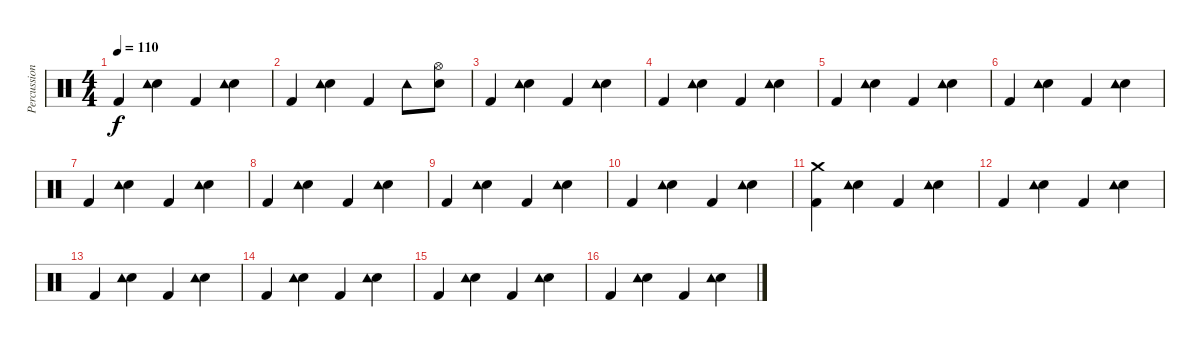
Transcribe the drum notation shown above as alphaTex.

\track ("Percussion" "Percussion") {instrument percussion}
\staff {score}
\articulation defaults
\ts (4 4)
\tempo 110
\clef neutral
\ks c "Kick (hit) 2".4{dy f}
("Electric Snare (hit)" "Tambourine (hit)").4 "Kick (hit) 2".4 ("Electric Snare (hit)" "Tambourine (hit)").4 |
"Kick (hit) 2".4 ("Electric Snare (hit)" "Tambourine (hit)").4 "Kick (hit) 2".4 "Tambourine (hit)".8 ("Electric Snare (hit)" "Hi-Hat (open)").8 |
"Kick (hit) 2".4 ("Electric Snare (hit)" "Tambourine (hit)").4 "Kick (hit) 2".4 ("Electric Snare (hit)" "Tambourine (hit)").4 |
"Kick (hit) 2".4 ("Electric Snare (hit)" "Tambourine (hit)").4 "Kick (hit) 2".4 ("Electric Snare (hit)" "Tambourine (hit)").4 |
"Kick (hit) 2".4 ("Electric Snare (hit)" "Tambourine (hit)").4 "Kick (hit) 2".4 ("Electric Snare (hit)" "Tambourine (hit)").4 |
"Kick (hit) 2".4 ("Electric Snare (hit)" "Tambourine (hit)").4 "Kick (hit) 2".4 ("Electric Snare (hit)" "Tambourine (hit)").4 |
"Kick (hit) 2".4 ("Electric Snare (hit)" "Tambourine (hit)").4 "Kick (hit) 2".4 ("Electric Snare (hit)" "Tambourine (hit)").4 |
"Kick (hit) 2".4 ("Electric Snare (hit)" "Tambourine (hit)").4 "Kick (hit) 2".4 ("Electric Snare (hit)" "Tambourine (hit)").4 |
"Kick (hit) 2".4 ("Electric Snare (hit)" "Tambourine (hit)").4 "Kick (hit) 2".4 ("Electric Snare (hit)" "Tambourine (hit)").4 |
"Kick (hit) 2".4 ("Electric Snare (hit)" "Tambourine (hit)").4 "Kick (hit) 2".4 ("Electric Snare (hit)" "Tambourine (hit)").4 |
("Kick (hit) 2" "Crash medium (hit)").4 ("Electric Snare (hit)" "Tambourine (hit)").4 "Kick (hit) 2".4 ("Electric Snare (hit)" "Tambourine (hit)").4 |
"Kick (hit) 2".4 ("Electric Snare (hit)" "Tambourine (hit)").4 "Kick (hit) 2".4 ("Electric Snare (hit)" "Tambourine (hit)").4 |
"Kick (hit) 2".4 ("Electric Snare (hit)" "Tambourine (hit)").4 "Kick (hit) 2".4 ("Electric Snare (hit)" "Tambourine (hit)").4 |
"Kick (hit) 2".4 ("Electric Snare (hit)" "Tambourine (hit)").4 "Kick (hit) 2".4 ("Electric Snare (hit)" "Tambourine (hit)").4 |
"Kick (hit) 2".4 ("Electric Snare (hit)" "Tambourine (hit)").4 "Kick (hit) 2".4 ("Electric Snare (hit)" "Tambourine (hit)").4 |
"Kick (hit) 2".4 ("Electric Snare (hit)" "Tambourine (hit)").4 "Kick (hit) 2".4 ("Electric Snare (hit)" "Tambourine (hit)").4
